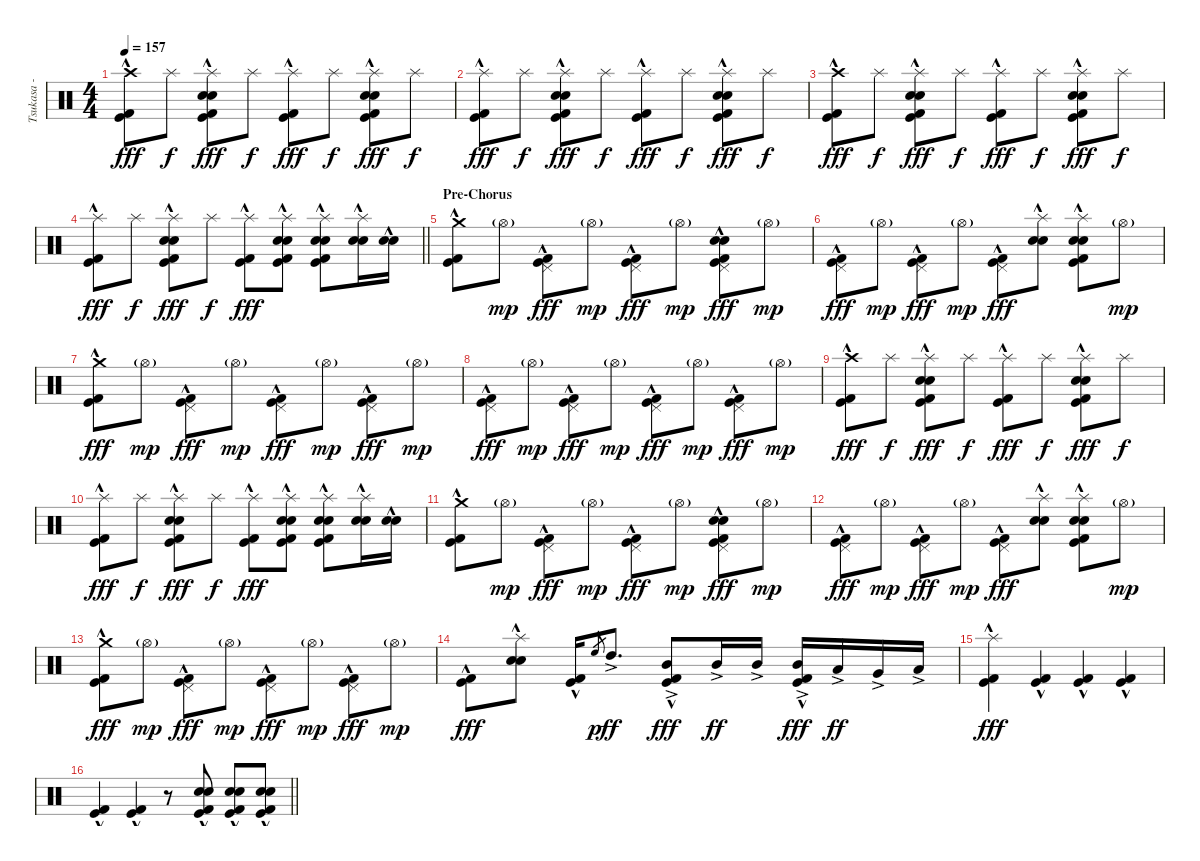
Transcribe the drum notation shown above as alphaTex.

\track ("Tsukasa - Drums" "Tsukasa - ") {instrument percussion}
\staff {score}
\articulation defaults
\ts (4 4)
\tempo 157
\clef neutral
\ks c
("Crash high (hit)" "Kick (hit)"{hac} "Kick (hit) 2"{hac}).8{dy fff} "Splash (hit)".8{dy f} ("Splash (hit)"{hac} "Electric Snare (hit)"{hac} "Snare (hit) 2" "Kick (hit)"{hac} "Kick (hit) 2"{hac}).8{dy fff} "Splash (hit)".8{dy f} ("Splash (hit)"{hac} "Kick (hit)"{hac} "Kick (hit) 2"{hac}).8{dy fff} "Splash (hit)".8{dy f} ("Splash (hit)"{hac} "Electric Snare (hit)"{hac} "Snare (hit) 2" "Kick (hit)"{hac} "Kick (hit) 2"{hac}).8{dy fff} "Splash (hit)".8{dy f} |
("Splash (hit)"{hac} "Kick (hit)"{hac} "Kick (hit) 2"{hac}).8{dy fff} "Splash (hit)".8{dy f} ("Splash (hit)"{hac} "Electric Snare (hit)"{hac} "Snare (hit) 2" "Kick (hit)"{hac} "Kick (hit) 2"{hac}).8{dy fff} "Splash (hit)".8{dy f} ("Splash (hit)"{hac} "Kick (hit)"{hac} "Kick (hit) 2"{hac}).8{dy fff} "Splash (hit)".8{dy f} ("Splash (hit)"{hac} "Electric Snare (hit)"{hac} "Snare (hit) 2" "Kick (hit)"{hac} "Kick (hit) 2"{hac}).8{dy fff} "Splash (hit)".8{dy f} |
("Crash high (hit)" "Kick (hit)"{hac} "Kick (hit) 2"{hac}).8{dy fff} "Splash (hit)".8{dy f} ("Splash (hit)"{hac} "Electric Snare (hit)"{hac} "Snare (hit) 2" "Kick (hit)"{hac} "Kick (hit) 2"{hac}).8{dy fff} "Splash (hit)".8{dy f} ("Splash (hit)"{hac} "Kick (hit)"{hac} "Kick (hit) 2"{hac}).8{dy fff} "Splash (hit)".8{dy f} ("Splash (hit)"{hac} "Electric Snare (hit)"{hac} "Snare (hit) 2" "Kick (hit)"{hac} "Kick (hit) 2"{hac}).8{dy fff} "Splash (hit)".8{dy f} |
\barLineRight lightlight
("Splash (hit)"{hac} "Kick (hit)"{hac} "Kick (hit) 2"{hac}).8{dy fff} "Splash (hit)".8{dy f} ("Splash (hit)"{hac} "Electric Snare (hit)"{hac} "Snare (hit) 2" "Kick (hit)"{hac} "Kick (hit) 2"{hac}).8{dy fff} "Splash (hit)".8{dy f} ("Splash (hit)"{hac} "Kick (hit)"{hac} "Kick (hit) 2"{hac}).8{dy fff} ("Splash (hit)" "Electric Snare (hit)"{hac} "Snare (hit) 2"{hac} "Kick (hit)"{hac} "Kick (hit) 2"{hac}).8 ("Splash (hit)"{hac} "Electric Snare (hit)"{hac} "Snare (hit) 2"{hac} "Kick (hit)"{hac} "Kick (hit) 2"{hac}).8 ("Splash (hit)" "Electric Snare (hit)"{hac} "Snare (hit) 2"{hac}).16 ("Electric Snare (hit)"{hac} "Snare (hit) 2"{hac}).16 |
\section ("" "Pre-Chorus")
("Crash medium (hit)" "Kick (hit)"{hac} "Kick (hit) 2"{hac}).8 "Hi-Hat (open)"{g}.8{dy mp} ("Pedal Hi-Hat (hit)" "Kick (hit)"{hac} "Kick (hit) 2"{hac}).8{dy fff} "Hi-Hat (open)"{g}.8{dy mp} ("Pedal Hi-Hat (hit)" "Kick (hit)"{hac} "Kick (hit) 2"{hac}).8{dy fff} "Hi-Hat (open)"{g}.8{dy mp} ("Pedal Hi-Hat (hit)" "Electric Snare (hit)"{hac} "Snare (hit) 2"{hac} "Kick (hit)"{hac} "Kick (hit) 2"{hac}).8{dy fff} "Hi-Hat (open)"{g}.8{dy mp} |
("Pedal Hi-Hat (hit)" "Kick (hit)"{hac} "Kick (hit) 2"{hac}).8{dy fff} "Hi-Hat (open)"{g}.8{dy mp} ("Pedal Hi-Hat (hit)" "Kick (hit)"{hac} "Kick (hit) 2"{hac}).8{dy fff} "Hi-Hat (open)"{g}.8{dy mp} ("Pedal Hi-Hat (hit)" "Kick (hit)"{hac} "Kick (hit) 2"{hac}).8{dy fff} ("Splash (hit)"{hac} "Electric Snare (hit)"{hac} "Snare (hit) 2"{hac}).8 ("Splash (hit)"{hac} "Electric Snare (hit)"{hac} "Snare (hit) 2"{hac} "Kick (hit)"{hac} "Kick (hit) 2"{hac}).8 "Hi-Hat (open)"{g}.8{dy mp} |
("Crash medium (hit)" "Kick (hit)"{hac} "Kick (hit) 2"{hac}).8{dy fff} "Hi-Hat (open)"{g}.8{dy mp} ("Pedal Hi-Hat (hit)" "Kick (hit)"{hac} "Kick (hit) 2"{hac}).8{dy fff} "Hi-Hat (open)"{g}.8{dy mp} ("Pedal Hi-Hat (hit)" "Kick (hit)"{hac} "Kick (hit) 2"{hac}).8{dy fff} "Hi-Hat (open)"{g}.8{dy mp} ("Pedal Hi-Hat (hit)" "Kick (hit)"{hac} "Kick (hit) 2"{hac}).8{dy fff} "Hi-Hat (open)"{g}.8{dy mp} |
("Pedal Hi-Hat (hit)" "Kick (hit)"{hac} "Kick (hit) 2"{hac}).8{dy fff} "Hi-Hat (open)"{g}.8{dy mp} ("Pedal Hi-Hat (hit)" "Kick (hit)"{hac} "Kick (hit) 2"{hac}).8{dy fff} "Hi-Hat (open)"{g}.8{dy mp} ("Pedal Hi-Hat (hit)" "Kick (hit)"{hac} "Kick (hit) 2"{hac}).8{dy fff} "Hi-Hat (open)"{g}.8{dy mp} ("Pedal Hi-Hat (hit)" "Kick (hit)"{hac} "Kick (hit) 2"{hac}).8{dy fff} "Hi-Hat (open)"{g}.8{dy mp} |
("Crash high (hit)" "Kick (hit)"{hac} "Kick (hit) 2"{hac}).8{dy fff} "Splash (hit)".8{dy f} ("Splash (hit)"{hac} "Electric Snare (hit)"{hac} "Snare (hit) 2" "Kick (hit)"{hac} "Kick (hit) 2"{hac}).8{dy fff} "Splash (hit)".8{dy f} ("Splash (hit)"{hac} "Kick (hit)"{hac} "Kick (hit) 2"{hac}).8{dy fff} "Splash (hit)".8{dy f} ("Splash (hit)"{hac} "Electric Snare (hit)"{hac} "Snare (hit) 2" "Kick (hit)"{hac} "Kick (hit) 2"{hac}).8{dy fff} "Splash (hit)".8{dy f} |
("Splash (hit)"{hac} "Kick (hit)"{hac} "Kick (hit) 2"{hac}).8{dy fff} "Splash (hit)".8{dy f} ("Splash (hit)"{hac} "Electric Snare (hit)"{hac} "Snare (hit) 2" "Kick (hit)"{hac} "Kick (hit) 2"{hac}).8{dy fff} "Splash (hit)".8{dy f} ("Splash (hit)"{hac} "Kick (hit)"{hac} "Kick (hit) 2"{hac}).8{dy fff} ("Splash (hit)" "Electric Snare (hit)"{hac} "Snare (hit) 2"{hac} "Kick (hit)"{hac} "Kick (hit) 2"{hac}).8 ("Splash (hit)"{hac} "Electric Snare (hit)"{hac} "Snare (hit) 2"{hac} "Kick (hit)"{hac} "Kick (hit) 2"{hac}).8 ("Splash (hit)" "Electric Snare (hit)"{hac} "Snare (hit) 2"{hac}).16 ("Electric Snare (hit)"{hac} "Snare (hit) 2"{hac}).16 |
("Crash medium (hit)" "Kick (hit)"{hac} "Kick (hit) 2"{hac}).8 "Hi-Hat (open)"{g}.8{dy mp} ("Pedal Hi-Hat (hit)" "Kick (hit)"{hac} "Kick (hit) 2"{hac}).8{dy fff} "Hi-Hat (open)"{g}.8{dy mp} ("Pedal Hi-Hat (hit)" "Kick (hit)"{hac} "Kick (hit) 2"{hac}).8{dy fff} "Hi-Hat (open)"{g}.8{dy mp} ("Pedal Hi-Hat (hit)" "Electric Snare (hit)"{hac} "Snare (hit) 2"{hac} "Kick (hit)"{hac} "Kick (hit) 2"{hac}).8{dy fff} "Hi-Hat (open)"{g}.8{dy mp} |
("Pedal Hi-Hat (hit)" "Kick (hit)"{hac} "Kick (hit) 2"{hac}).8{dy fff} "Hi-Hat (open)"{g}.8{dy mp} ("Pedal Hi-Hat (hit)" "Kick (hit)"{hac} "Kick (hit) 2"{hac}).8{dy fff} "Hi-Hat (open)"{g}.8{dy mp} ("Pedal Hi-Hat (hit)" "Kick (hit)"{hac} "Kick (hit) 2"{hac}).8{dy fff} ("Splash (hit)"{hac} "Electric Snare (hit)"{hac} "Snare (hit) 2"{hac}).8 ("Splash (hit)"{hac} "Electric Snare (hit)"{hac} "Snare (hit) 2"{hac} "Kick (hit)"{hac} "Kick (hit) 2"{hac}).8 "Hi-Hat (open)"{g}.8{dy mp} |
("Crash medium (hit)" "Kick (hit)"{hac} "Kick (hit) 2"{hac}).8{dy fff} "Hi-Hat (open)"{g}.8{dy mp} ("Pedal Hi-Hat (hit)" "Kick (hit)"{hac} "Kick (hit) 2"{hac}).8{dy fff} "Hi-Hat (open)"{g}.8{dy mp} ("Pedal Hi-Hat (hit)" "Kick (hit)"{hac} "Kick (hit) 2"{hac}).8{dy fff} "Hi-Hat (open)"{g}.8{dy mp} ("Pedal Hi-Hat (hit)" "Kick (hit)"{hac} "Kick (hit) 2"{hac}).8{dy fff} "Hi-Hat (open)"{g}.8{dy mp} |
("Kick (hit)"{hac} "Kick (hit) 2"{hac}).8{dy fff} ("Splash (hit)"{hac} "Electric Snare (hit)"{hac} "Snare (hit) 2"{hac}).8 ("Kick (hit)"{hac} "Kick (hit) 2"{hac}).16 "High Floor Tom (hit)".8{gr dy p} "High Tom (hit)"{ac}.8{d dy ff} ("Mid Tom (hit)"{ac} "Kick (hit)"{hac} "Kick (hit) 2"{hac}).8{dy fff} "Mid Tom (hit)"{ac}.16{dy ff} "Mid Tom (hit)"{ac}.16 ("Mid Tom (hit)"{ac} "Kick (hit)"{hac} "Kick (hit) 2"{hac}).16{dy fff} "Low Tom (hit)"{ac}.16{dy ff} "Very Low Tom (hit)"{ac}.16 "Low Floor Tom (hit)"{ac}.16 |
("Splash (hit)"{hac} "Kick (hit)"{hac} "Kick (hit) 2"{hac}).4{dy fff} ("Kick (hit)"{hac} "Kick (hit) 2"{hac}).4 ("Kick (hit)"{hac} "Kick (hit) 2"{hac}).4 ("Kick (hit)"{hac} "Kick (hit) 2"{hac}).4 |
\barLineRight lightlight
("Kick (hit)"{hac} "Kick (hit) 2"{hac}).4 ("Kick (hit)"{hac} "Kick (hit) 2"{hac}).4 r.8 ("Electric Snare (hit)"{hac} "Snare (hit) 2" "Kick (hit)"{hac} "Kick (hit) 2"{hac}).8 ("Electric Snare (hit)"{hac} "Snare (hit) 2" "Kick (hit)"{hac} "Kick (hit) 2"{hac}).8 ("Electric Snare (hit)"{hac} "Snare (hit) 2" "Kick (hit)"{hac} "Kick (hit) 2"{hac}).8
